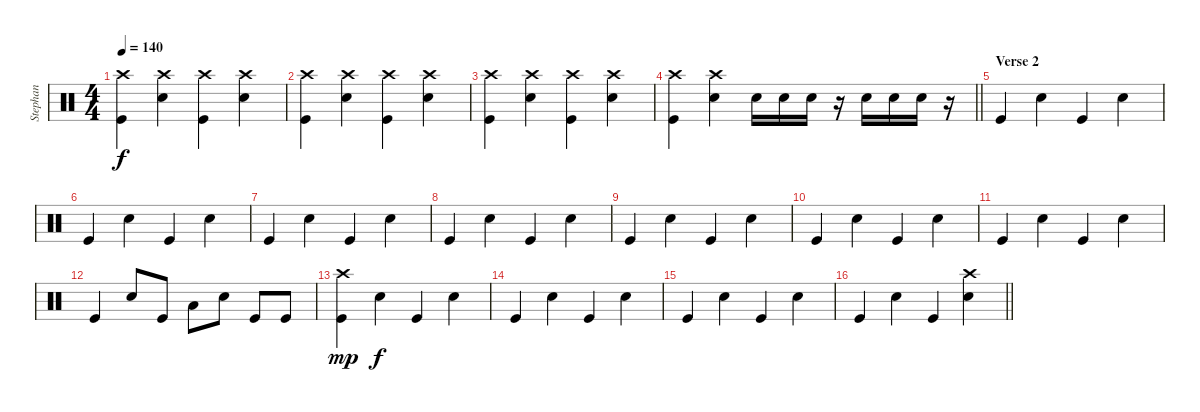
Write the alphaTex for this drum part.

\track ("Stephan" "Stephan") {instrument percussion}
\staff {score}
\articulation defaults
\ts (4 4)
\tempo 140
\clef neutral
\ks c
("Kick (hit)" "Crash high (hit)").4{dy f} ("Snare (hit) 2" "Crash high (hit)").4 ("Kick (hit)" "Crash high (hit)").4 ("Snare (hit) 2" "Crash high (hit)").4 |
("Kick (hit)" "Crash high (hit)").4 ("Snare (hit) 2" "Crash high (hit)").4 ("Kick (hit)" "Crash high (hit)").4 ("Snare (hit) 2" "Crash high (hit)").4 |
("Kick (hit)" "Crash high (hit)").4 ("Snare (hit) 2" "Crash high (hit)").4 ("Kick (hit)" "Crash high (hit)").4 ("Snare (hit) 2" "Crash high (hit)").4 |
\barLineRight lightlight
("Kick (hit)" "Crash high (hit)").4 ("Snare (hit) 2" "Crash high (hit)").4 "Snare (hit) 2".16 "Snare (hit) 2".16 "Snare (hit) 2".16 r.16 "Snare (hit) 2".16 "Snare (hit) 2".16 "Snare (hit) 2".16 r.16 |
\section ("" "Verse 2")
"Kick (hit)".4 "Snare (hit) 2".4 "Kick (hit)".4 "Snare (hit) 2".4 |
"Kick (hit)".4 "Snare (hit) 2".4 "Kick (hit)".4 "Snare (hit) 2".4 |
"Kick (hit)".4 "Snare (hit) 2".4 "Kick (hit)".4 "Snare (hit) 2".4 |
"Kick (hit)".4 "Snare (hit) 2".4 "Kick (hit)".4 "Snare (hit) 2".4 |
"Kick (hit)".4 "Snare (hit) 2".4 "Kick (hit)".4 "Snare (hit) 2".4 |
"Kick (hit)".4 "Snare (hit) 2".4 "Kick (hit)".4 "Snare (hit) 2".4 |
"Kick (hit)".4 "Snare (hit) 2".4 "Kick (hit)".4 "Snare (hit) 2".4 |
"Kick (hit)".4 "Snare (hit) 2".8 "Kick (hit)".8 "Low Tom (hit)".8 "Snare (hit) 2".8 "Kick (hit)".8 "Kick (hit)".8 |
("Kick (hit)" "Crash high (hit)").4{dy mp} "Snare (hit) 2".4{dy f} "Kick (hit)".4 "Snare (hit) 2".4 |
"Kick (hit)".4 "Snare (hit) 2".4 "Kick (hit)".4 "Snare (hit) 2".4 |
"Kick (hit)".4 "Snare (hit) 2".4 "Kick (hit)".4 "Snare (hit) 2".4 |
\barLineRight lightlight "Kick (hit)".4 "Snare (hit) 2".4 "Kick (hit)".4
("Snare (hit) 2" "Crash high (hit)").4
